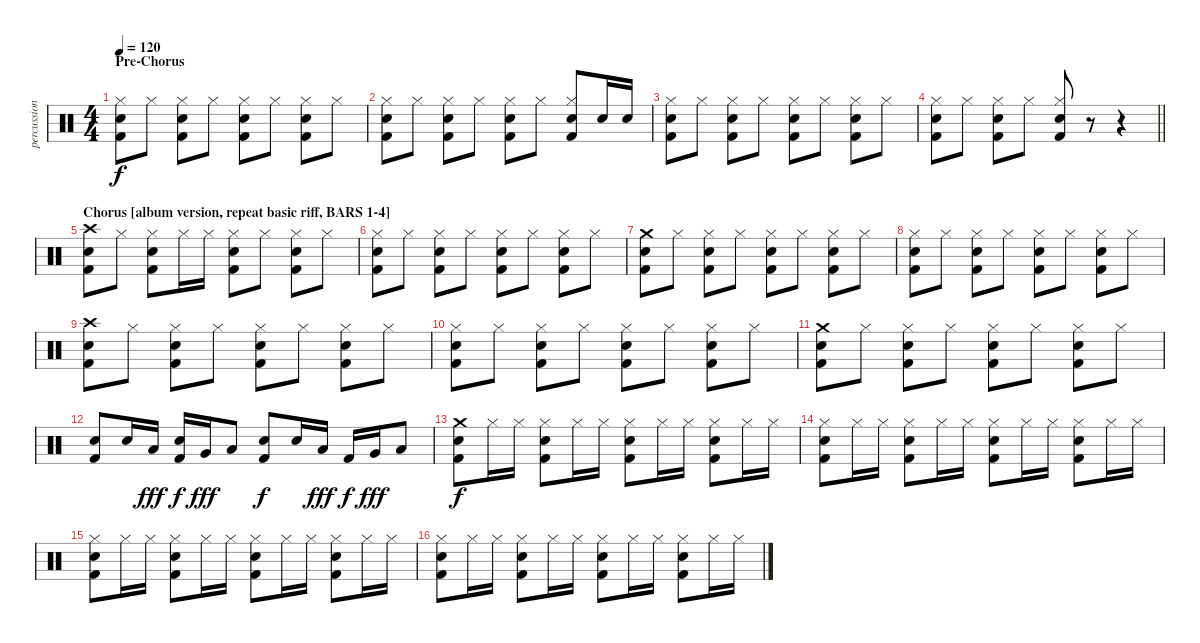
\track ("percussion" "percussion") {instrument percussion}
\staff {score}
\articulation defaults
\ts (4 4)
\section ("" "Pre-Chorus")
\tempo 120
\clef neutral
\ks c
("Snare (hit) 2" "Hi-Hat (closed)" "Kick (hit) 2").8{dy f} "Hi-Hat (closed)".8 ("Snare (hit) 2" "Hi-Hat (closed)" "Kick (hit) 2").8 "Hi-Hat (closed)".8 ("Snare (hit) 2" "Hi-Hat (closed)" "Kick (hit) 2").8 "Hi-Hat (closed)".8 ("Snare (hit) 2" "Hi-Hat (closed)" "Kick (hit) 2").8 "Hi-Hat (closed)".8 |
("Snare (hit) 2" "Hi-Hat (closed)" "Kick (hit) 2").8 "Hi-Hat (closed)".8 ("Snare (hit) 2" "Hi-Hat (closed)" "Kick (hit) 2").8 "Hi-Hat (closed)".8 ("Snare (hit) 2" "Hi-Hat (closed)" "Kick (hit) 2").8 "Hi-Hat (closed)".8 ("Snare (hit) 2" "Hi-Hat (closed)" "Kick (hit) 2").8 "Snare (hit) 2".16 "Snare (hit) 2".16 |
("Snare (hit) 2" "Hi-Hat (closed)" "Kick (hit) 2").8 "Hi-Hat (closed)".8 ("Snare (hit) 2" "Hi-Hat (closed)" "Kick (hit) 2").8 "Hi-Hat (closed)".8 ("Snare (hit) 2" "Hi-Hat (closed)" "Kick (hit) 2").8 "Hi-Hat (closed)".8 ("Snare (hit) 2" "Hi-Hat (closed)" "Kick (hit) 2").8 "Hi-Hat (closed)".8 |
\barLineRight lightlight
("Snare (hit) 2" "Hi-Hat (closed)" "Kick (hit) 2").8 "Hi-Hat (closed)".8 ("Snare (hit) 2" "Hi-Hat (closed)" "Kick (hit) 2").8 "Hi-Hat (closed)".8 ("Snare (hit) 2" "Hi-Hat (closed)" "Kick (hit) 2").8 r.8 r.4 |
\section ("" "Chorus [album version, repeat basic riff, BARS 1-4]")
("Crash high (hit)" "Snare (hit) 2" "Kick (hit) 2").8 "Hi-Hat (closed)".8 ("Snare (hit) 2" "Hi-Hat (closed)" "Kick (hit) 2").8 "Hi-Hat (closed)".16 "Hi-Hat (closed)".16 ("Snare (hit) 2" "Hi-Hat (closed)" "Kick (hit) 2").8 "Hi-Hat (closed)".8 ("Snare (hit) 2" "Hi-Hat (closed)" "Kick (hit) 2").8 "Hi-Hat (closed)".8 |
("Snare (hit) 2" "Hi-Hat (closed)" "Kick (hit) 2").8 "Hi-Hat (closed)".8 ("Snare (hit) 2" "Hi-Hat (closed)" "Kick (hit) 2").8 "Hi-Hat (closed)".8 ("Snare (hit) 2" "Hi-Hat (closed)" "Kick (hit) 2").8 "Hi-Hat (closed)".8 ("Snare (hit) 2" "Hi-Hat (closed)" "Kick (hit) 2").8 "Hi-Hat (closed)".8 |
("Crash medium (hit)" "Snare (hit) 2" "Kick (hit) 2").8 "Hi-Hat (closed)".8 ("Snare (hit) 2" "Hi-Hat (closed)" "Kick (hit) 2").8 "Hi-Hat (closed)".8 ("Snare (hit) 2" "Hi-Hat (closed)" "Kick (hit) 2").8 "Hi-Hat (closed)".8 ("Snare (hit) 2" "Hi-Hat (closed)" "Kick (hit) 2").8 "Hi-Hat (closed)".8 |
("Snare (hit) 2" "Hi-Hat (closed)" "Kick (hit) 2").8 "Hi-Hat (closed)".8 ("Snare (hit) 2" "Hi-Hat (closed)" "Kick (hit) 2").8 "Hi-Hat (closed)".8 ("Snare (hit) 2" "Hi-Hat (closed)" "Kick (hit) 2").8 "Hi-Hat (closed)".8 ("Snare (hit) 2" "Hi-Hat (closed)" "Kick (hit) 2").8 "Hi-Hat (closed)".8 |
("Crash high (hit)" "Snare (hit) 2" "Kick (hit) 2").8 "Hi-Hat (closed)".8 ("Snare (hit) 2" "Hi-Hat (closed)" "Kick (hit) 2").8 "Hi-Hat (closed)".8 ("Snare (hit) 2" "Hi-Hat (closed)" "Kick (hit) 2").8 "Hi-Hat (closed)".8 ("Snare (hit) 2" "Hi-Hat (closed)" "Kick (hit) 2").8 "Hi-Hat (closed)".8 |
("Snare (hit) 2" "Hi-Hat (closed)" "Kick (hit) 2").8 "Hi-Hat (closed)".8 ("Snare (hit) 2" "Hi-Hat (closed)" "Kick (hit) 2").8 "Hi-Hat (closed)".8 ("Snare (hit) 2" "Hi-Hat (closed)" "Kick (hit) 2").8 "Hi-Hat (closed)".8 ("Snare (hit) 2" "Hi-Hat (closed)" "Kick (hit) 2").8 "Hi-Hat (closed)".8 |
("Crash medium (hit)" "Snare (hit) 2" "Kick (hit) 2").8 "Hi-Hat (closed)".8 ("Snare (hit) 2" "Hi-Hat (closed)" "Kick (hit) 2").8 "Hi-Hat (closed)".8 ("Snare (hit) 2" "Hi-Hat (closed)" "Kick (hit) 2").8 "Hi-Hat (closed)".8 ("Snare (hit) 2" "Hi-Hat (closed)" "Kick (hit) 2").8 "Hi-Hat (closed)".8 |
("Snare (hit) 2" "Kick (hit) 2").8 "Snare (hit) 2".16 "Low Tom (hit)".16{dy fff} ("Snare (hit) 2" "Kick (hit) 2").16{dy f} "Very Low Tom (hit)".16{dy fff} "Low Tom (hit)".8 ("Snare (hit) 2" "Kick (hit) 2").8{dy f} "Snare (hit) 2".16 "Low Tom (hit)".16{dy fff} "Kick (hit) 2".16{dy f} "Very Low Tom (hit)".16{dy fff} "Low Tom (hit)".8 |
("Crash medium (hit)" "Snare (hit) 2" "Kick (hit) 2").8{dy f} "Hi-Hat (closed)".16 "Hi-Hat (closed)".16 ("Snare (hit) 2" "Hi-Hat (closed)" "Kick (hit) 2").8 "Hi-Hat (closed)".16 "Hi-Hat (closed)".16 ("Snare (hit) 2" "Hi-Hat (closed)" "Kick (hit) 2").8 "Hi-Hat (closed)".16 "Hi-Hat (closed)".16 ("Snare (hit) 2" "Hi-Hat (closed)" "Kick (hit) 2").8 "Hi-Hat (closed)".16 "Hi-Hat (closed)".16 |
("Snare (hit) 2" "Hi-Hat (closed)" "Kick (hit) 2").8 "Hi-Hat (closed)".16 "Hi-Hat (closed)".16 ("Snare (hit) 2" "Hi-Hat (closed)" "Kick (hit) 2").8 "Hi-Hat (closed)".16 "Hi-Hat (closed)".16 ("Snare (hit) 2" "Hi-Hat (closed)" "Kick (hit) 2").8 "Hi-Hat (closed)".16 "Hi-Hat (closed)".16 ("Snare (hit) 2" "Hi-Hat (closed)" "Kick (hit) 2").8 "Hi-Hat (closed)".16 "Hi-Hat (closed)".16 |
("Snare (hit) 2" "Hi-Hat (closed)" "Kick (hit) 2").8 "Hi-Hat (closed)".16 "Hi-Hat (closed)".16 ("Snare (hit) 2" "Hi-Hat (closed)" "Kick (hit) 2").8 "Hi-Hat (closed)".16 "Hi-Hat (closed)".16 ("Snare (hit) 2" "Hi-Hat (closed)" "Kick (hit) 2").8 "Hi-Hat (closed)".16 "Hi-Hat (closed)".16 ("Snare (hit) 2" "Hi-Hat (closed)" "Kick (hit) 2").8 "Hi-Hat (closed)".16 "Hi-Hat (closed)".16 |
("Snare (hit) 2" "Hi-Hat (closed)" "Kick (hit) 2").8 "Hi-Hat (closed)".16 "Hi-Hat (closed)".16 ("Snare (hit) 2" "Hi-Hat (closed)" "Kick (hit) 2").8 "Hi-Hat (closed)".16 "Hi-Hat (closed)".16 ("Snare (hit) 2" "Hi-Hat (closed)" "Kick (hit) 2").8 "Hi-Hat (closed)".16 "Hi-Hat (closed)".16 ("Snare (hit) 2" "Hi-Hat (closed)" "Kick (hit) 2").8 "Hi-Hat (closed)".16 "Hi-Hat (closed)".16
